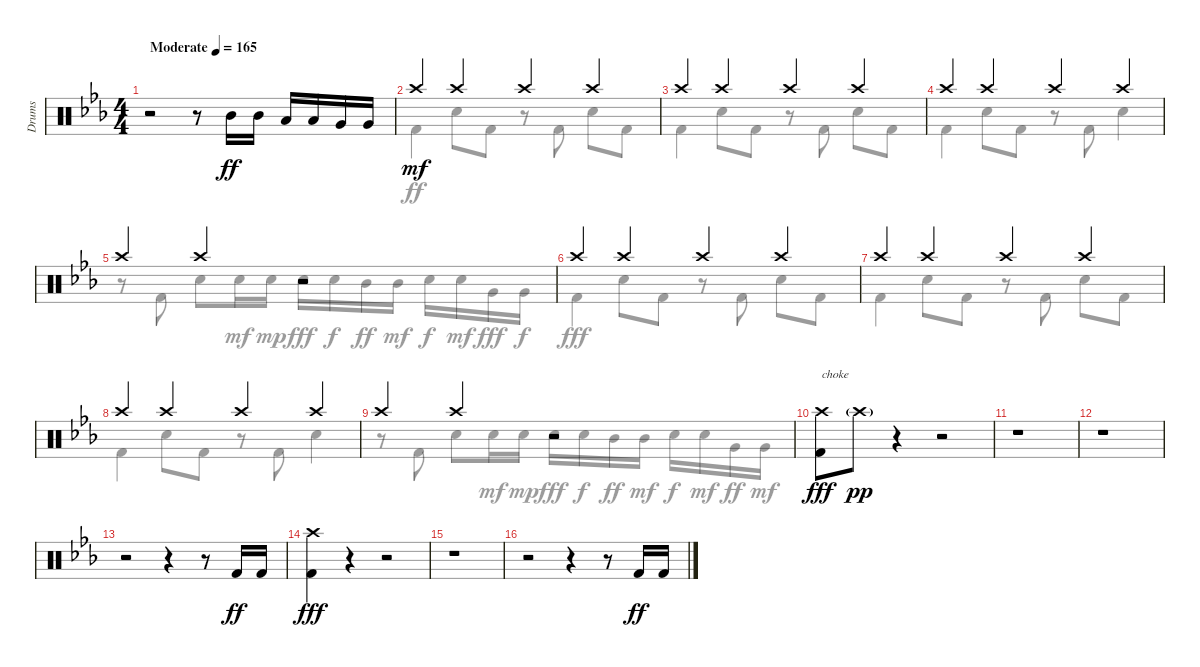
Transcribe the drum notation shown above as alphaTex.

\track ("Drums" "Drums") {instrument percussion}
\staff {score}
\articulation defaults
\voice
\ts (4 4)
\tempo (165 "Moderate")
\clef neutral
\ks cminor
r.2{dy ff} r.8 "Mid Tom (hit)".16 "Mid Tom (hit)".16 "Low Tom (hit)".16 "Low Tom (hit)".16 "Very Low Tom (hit)".16 "Very Low Tom (hit)".16 |
"Crash high (hit)".4{dy mf} "Crash high (hit)".4 "Crash high (hit)".4 "Crash high (hit)".4 |
"Crash high (hit)".4 "Crash high (hit)".4 "Crash high (hit)".4 "Crash high (hit)".4 |
"Crash high (hit)".4 "Crash high (hit)".4 "Crash high (hit)".4 "Crash high (hit)".4 |
"Crash high (hit)".4 "Crash high (hit)".4 r.2 |
"Crash high (hit)".4 "Crash high (hit)".4 "Crash high (hit)".4 "Crash high (hit)".4 |
"Crash high (hit)".4 "Crash high (hit)".4 "Crash high (hit)".4 "Crash high (hit)".4 |
"Crash high (hit)".4 "Crash high (hit)".4 "Crash high (hit)".4 "Crash high (hit)".4 |
"Crash high (hit)".4 "Crash high (hit)".4 r.2 |
("Crash high (hit)" "Kick (hit) 2").8{txt "choke" dy fff} "Crash high (hit)"{g}.8{dy pp} r.4 r.2 |
r.1 |
r.1 |
r.2 r.4 r.8 "Kick (hit) 2".16{dy ff} "Kick (hit) 2".16 |
("Crash high (hit)" "Kick (hit) 2").4{dy fff} r.4 r.2 |
r.1 |
r.2 r.4 r.8 "Kick (hit) 2".16{dy ff} "Kick (hit) 2".16
\voice
\clef neutral
\ottava regular
\simile none
\ks cminor
|
"Kick (hit) 2".4 "Electric Snare (hit)".8 "Kick (hit) 2".8 r.8 "Kick (hit) 2".8 "Electric Snare (hit)".8 "Kick (hit) 2".8 |
"Kick (hit) 2".4 "Electric Snare (hit)".8 "Kick (hit) 2".8 r.8 "Kick (hit) 2".8 "Electric Snare (hit)".8 "Kick (hit) 2".8 |
"Kick (hit) 2".4 "Electric Snare (hit)".8 "Kick (hit) 2".8 r.8 "Kick (hit) 2".8 "Electric Snare (hit)".4 |
r.8 "Kick (hit) 2".8 "Electric Snare (hit)".8 "Electric Snare (hit)".16{dy mf} "Electric Snare (hit)".16{dy mp} "Electric Snare (hit)".16{dy fff} "Electric Snare (hit)".16{dy f} "Mid Tom (hit)".16{dy ff} "Mid Tom (hit)".16{dy mf} "Electric Snare (hit)".16{dy f} "Electric Snare (hit)".16{dy mf} "Very Low Tom (hit)".16{dy fff} "Very Low Tom (hit)".16{dy f} |
"Kick (hit) 2".4{dy fff} "Electric Snare (hit)".8 "Kick (hit) 2".8 r.8 "Kick (hit) 2".8 "Electric Snare (hit)".8 "Kick (hit) 2".8 |
"Kick (hit) 2".4 "Electric Snare (hit)".8 "Kick (hit) 2".8 r.8 "Kick (hit) 2".8 "Electric Snare (hit)".8 "Kick (hit) 2".8 |
"Kick (hit) 2".4 "Electric Snare (hit)".8 "Kick (hit) 2".8 r.8 "Kick (hit) 2".8 "Electric Snare (hit)".4 |
r.8 "Kick (hit) 2".8 "Electric Snare (hit)".8 "Electric Snare (hit)".16{dy mf} "Electric Snare (hit)".16{dy mp} "Electric Snare (hit)".16{dy fff} "Electric Snare (hit)".16{dy f} "Mid Tom (hit)".16{dy ff} "Mid Tom (hit)".16{dy mf} "Electric Snare (hit)".16{dy f} "Electric Snare (hit)".16{dy mf} "Very Low Tom (hit)".16{dy ff} "Very Low Tom (hit)".16{dy mf} |
|
|
|
|
|
|
